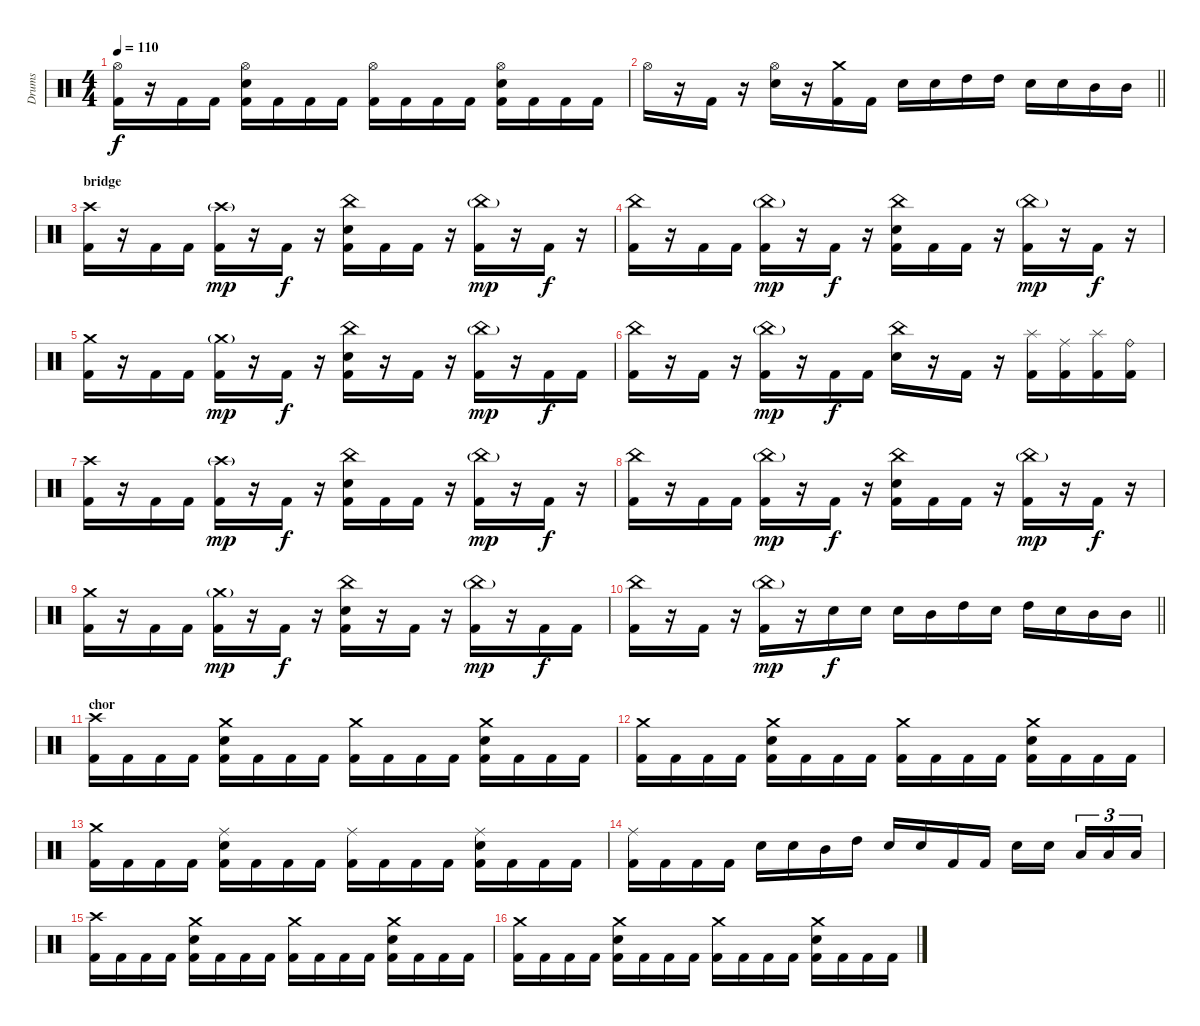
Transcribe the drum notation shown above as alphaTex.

\track ("Drums" "Drums") {instrument percussion}
\staff {score}
\articulation defaults
\ts (4 4)
\tempo 110
\clef neutral
\ks c
("Hi-Hat (open)" "Kick (hit) 2").16{dy f} r.16 "Kick (hit) 2".16 "Kick (hit) 2".16 ("Hi-Hat (open)" "Electric Snare (hit)" "Kick (hit) 2").16 "Kick (hit) 2".16 "Kick (hit) 2".16 "Kick (hit) 2".16 ("Hi-Hat (open)" "Kick (hit) 2").16 "Kick (hit) 2".16 "Kick (hit) 2".16 "Kick (hit) 2".16 ("Hi-Hat (open)" "Electric Snare (hit)" "Kick (hit) 2").16 "Kick (hit) 2".16 "Kick (hit) 2".16 "Kick (hit) 2".16 |
\barLineRight lightlight "Hi-Hat (open)".16
r.16 "Kick (hit) 2".16 r.16 ("Hi-Hat (open)" "Electric Snare (hit)").16 r.16 ("Crash medium (hit)" "Kick (hit) 2").16 "Kick (hit) 2".16 "Electric Snare (hit)".16 "Electric Snare (hit)".16 "High Tom (hit)".16 "High Tom (hit)".16 "Electric Snare (hit)".16 "Electric Snare (hit)".16 "Mid Tom (hit)".16 "Mid Tom (hit)".16 |
\section ("" "bridge")
("Crash high (hit)" "Kick (hit) 2").16 r.16 "Kick (hit) 2".16 "Kick (hit) 2".16 ("Crash high (hit)"{g} "Kick (hit) 2").16{dy mp} r.16 "Kick (hit) 2".16{dy f} r.16 ("China (hit)" "Electric Snare (hit)" "Kick (hit) 2").16 "Kick (hit) 2".16 "Kick (hit) 2".16 r.16 ("China (hit)"{g} "Kick (hit) 2").16{dy mp} r.16 "Kick (hit) 2".16{dy f} r.16 |
("China (hit)" "Kick (hit) 2").16 r.16 "Kick (hit) 2".16 "Kick (hit) 2".16 ("China (hit)"{g} "Kick (hit) 2").16{dy mp} r.16 "Kick (hit) 2".16{dy f} r.16 ("China (hit)" "Electric Snare (hit)" "Kick (hit) 2").16 "Kick (hit) 2".16 "Kick (hit) 2".16 r.16 ("China (hit)"{g} "Kick (hit) 2").16{dy mp} r.16 "Kick (hit) 2".16{dy f} r.16 |
("Crash medium (hit)" "Kick (hit) 2").16 r.16 "Kick (hit) 2".16 "Kick (hit) 2".16 ("Crash medium (hit)"{g} "Kick (hit) 2").16{dy mp} r.16 "Kick (hit) 2".16{dy f} r.16 ("China (hit)" "Electric Snare (hit)" "Kick (hit) 2").16 r.16 "Kick (hit) 2".16 r.16 ("China (hit)"{g} "Kick (hit) 2").16{dy mp} r.16 "Kick (hit) 2".16{dy f} "Kick (hit) 2".16 |
("China (hit)" "Kick (hit) 2").16 r.16 "Kick (hit) 2".16 r.16 ("China (hit)"{g} "Kick (hit) 2").16{dy mp} r.16 "Kick (hit) 2".16{dy f} "Kick (hit) 2".16 ("China (hit)" "Electric Snare (hit)").16 r.16 "Kick (hit) 2".16 r.16 ("Splash (hit)" "Kick (hit) 2").16 ("Ride (middle)" "Kick (hit) 2").16 ("Splash (hit)" "Kick (hit) 2").16 ("Ride (bell)" "Kick (hit) 2").16 |
("Crash high (hit)" "Kick (hit) 2").16 r.16 "Kick (hit) 2".16 "Kick (hit) 2".16 ("Crash high (hit)"{g} "Kick (hit) 2").16{dy mp} r.16 "Kick (hit) 2".16{dy f} r.16 ("China (hit)" "Electric Snare (hit)" "Kick (hit) 2").16 "Kick (hit) 2".16 "Kick (hit) 2".16 r.16 ("China (hit)"{g} "Kick (hit) 2").16{dy mp} r.16 "Kick (hit) 2".16{dy f} r.16 |
("China (hit)" "Kick (hit) 2").16 r.16 "Kick (hit) 2".16 "Kick (hit) 2".16 ("China (hit)"{g} "Kick (hit) 2").16{dy mp} r.16 "Kick (hit) 2".16{dy f} r.16 ("China (hit)" "Electric Snare (hit)" "Kick (hit) 2").16 "Kick (hit) 2".16 "Kick (hit) 2".16 r.16 ("China (hit)"{g} "Kick (hit) 2").16{dy mp} r.16 "Kick (hit) 2".16{dy f} r.16 |
("Crash medium (hit)" "Kick (hit) 2").16 r.16 "Kick (hit) 2".16 "Kick (hit) 2".16 ("Crash medium (hit)"{g} "Kick (hit) 2").16{dy mp} r.16 "Kick (hit) 2".16{dy f} r.16 ("China (hit)" "Electric Snare (hit)" "Kick (hit) 2").16 r.16 "Kick (hit) 2".16 r.16 ("China (hit)"{g} "Kick (hit) 2").16{dy mp} r.16 "Kick (hit) 2".16{dy f} "Kick (hit) 2".16 |
\barLineRight lightlight
("China (hit)" "Kick (hit) 2").16 r.16 "Kick (hit) 2".16 r.16 ("China (hit)"{g} "Kick (hit) 2").16{dy mp} r.16 "Electric Snare (hit)".16{dy f} "Electric Snare (hit)".16 "Electric Snare (hit)".16 "Mid Tom (hit)".16 "High Tom (hit)".16 "Electric Snare (hit)".16 "High Tom (hit)".16 "Electric Snare (hit)".16 "Mid Tom (hit)".16 "Mid Tom (hit)".16 |
\section ("" "chor")
("Crash high (hit)" "Kick (hit) 2").16 "Kick (hit) 2".16 "Kick (hit) 2".16 "Kick (hit) 2".16 ("Crash medium (hit)" "Electric Snare (hit)" "Kick (hit) 2").16 "Kick (hit) 2".16 "Kick (hit) 2".16 "Kick (hit) 2".16 ("Crash medium (hit)" "Kick (hit) 2").16 "Kick (hit) 2".16 "Kick (hit) 2".16 "Kick (hit) 2".16 ("Crash medium (hit)" "Electric Snare (hit)" "Kick (hit) 2").16 "Kick (hit) 2".16 "Kick (hit) 2".16 "Kick (hit) 2".16 |
("Crash medium (hit)" "Kick (hit) 2").16 "Kick (hit) 2".16 "Kick (hit) 2".16 "Kick (hit) 2".16 ("Crash medium (hit)" "Electric Snare (hit)" "Kick (hit) 2").16 "Kick (hit) 2".16 "Kick (hit) 2".16 "Kick (hit) 2".16 ("Crash medium (hit)" "Kick (hit) 2").16 "Kick (hit) 2".16 "Kick (hit) 2".16 "Kick (hit) 2".16 ("Crash medium (hit)" "Electric Snare (hit)" "Kick (hit) 2").16 "Kick (hit) 2".16 "Kick (hit) 2".16 "Kick (hit) 2".16 |
("Crash medium (hit)" "Kick (hit) 2").16 "Kick (hit) 2".16 "Kick (hit) 2".16 "Kick (hit) 2".16 ("Ride (middle)" "Electric Snare (hit)" "Kick (hit) 2").16 "Kick (hit) 2".16 "Kick (hit) 2".16 "Kick (hit) 2".16 ("Ride (middle)" "Kick (hit) 2").16 "Kick (hit) 2".16 "Kick (hit) 2".16 "Kick (hit) 2".16 ("Ride (middle)" "Electric Snare (hit)" "Kick (hit) 2").16 "Kick (hit) 2".16 "Kick (hit) 2".16 "Kick (hit) 2".16 |
("Ride (middle)" "Kick (hit) 2").16 "Kick (hit) 2".16 "Kick (hit) 2".16 "Kick (hit) 2".16 "Electric Snare (hit)".16 "Electric Snare (hit)".16 "Mid Tom (hit)".16 "High Tom (hit)".16 "Electric Snare (hit)".16 "Electric Snare (hit)".16 "Kick (hit) 2".16 "Kick (hit) 2".16 "Electric Snare (hit)".16 "Electric Snare (hit)".16{beam splitsecondary} "Low Tom (hit)".16{tu (3 2)} "Low Tom (hit)".16{tu (3 2)} "Low Tom (hit)".16{tu (3 2)} |
("Crash high (hit)" "Kick (hit) 2").16 "Kick (hit) 2".16 "Kick (hit) 2".16 "Kick (hit) 2".16 ("Crash medium (hit)" "Electric Snare (hit)" "Kick (hit) 2").16 "Kick (hit) 2".16 "Kick (hit) 2".16 "Kick (hit) 2".16 ("Crash medium (hit)" "Kick (hit) 2").16 "Kick (hit) 2".16 "Kick (hit) 2".16 "Kick (hit) 2".16 ("Crash medium (hit)" "Electric Snare (hit)" "Kick (hit) 2").16 "Kick (hit) 2".16 "Kick (hit) 2".16 "Kick (hit) 2".16 |
("Crash medium (hit)" "Kick (hit) 2").16 "Kick (hit) 2".16 "Kick (hit) 2".16 "Kick (hit) 2".16 ("Crash medium (hit)" "Electric Snare (hit)" "Kick (hit) 2").16 "Kick (hit) 2".16 "Kick (hit) 2".16 "Kick (hit) 2".16 ("Crash medium (hit)" "Kick (hit) 2").16 "Kick (hit) 2".16 "Kick (hit) 2".16 "Kick (hit) 2".16 ("Crash medium (hit)" "Electric Snare (hit)" "Kick (hit) 2").16 "Kick (hit) 2".16 "Kick (hit) 2".16 "Kick (hit) 2".16
